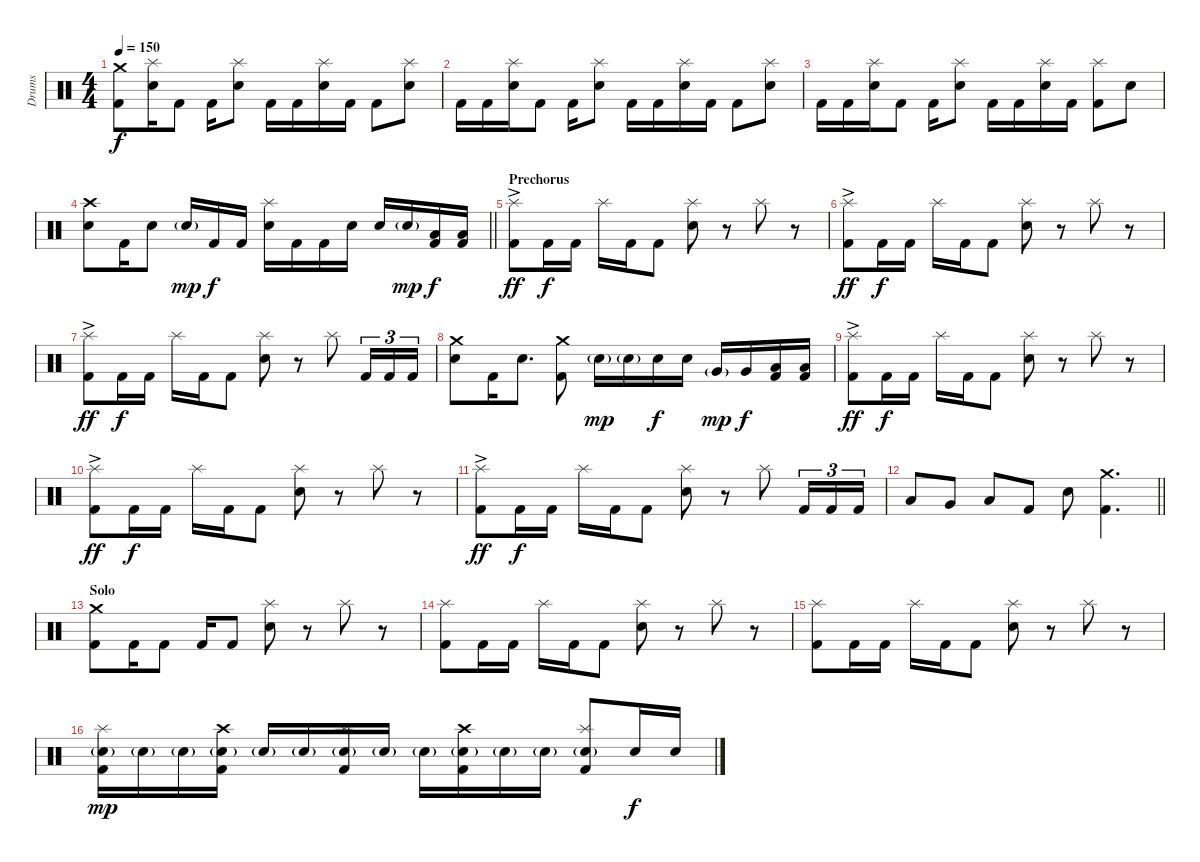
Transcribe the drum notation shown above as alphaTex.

\track ("Drums" "Drums") {instrument percussion}
\staff {score}
\articulation defaults
\ts (4 4)
\tempo 150
\clef neutral
\ks c
("Crash medium (hit)" "Kick (hit) 2").8{dy f} ("Splash (hit)" "Electric Snare (hit)").16 "Kick (hit) 2".8 "Kick (hit) 2".16 ("Splash (hit)" "Electric Snare (hit)").8 "Kick (hit) 2".16 "Kick (hit) 2".16 ("Splash (hit)" "Electric Snare (hit)").16 "Kick (hit) 2".16 "Kick (hit) 2".8 ("Splash (hit)" "Electric Snare (hit)").8 |
"Kick (hit) 2".16 "Kick (hit) 2".16 ("Splash (hit)" "Electric Snare (hit)").16 "Kick (hit) 2".8 "Kick (hit) 2".16 ("Splash (hit)" "Electric Snare (hit)").8 "Kick (hit) 2".16 "Kick (hit) 2".16 ("Splash (hit)" "Electric Snare (hit)").16 "Kick (hit) 2".16 "Kick (hit) 2".8 ("Splash (hit)" "Electric Snare (hit)").8 |
"Kick (hit) 2".16 "Kick (hit) 2".16 ("Splash (hit)" "Electric Snare (hit)").16 "Kick (hit) 2".8 "Kick (hit) 2".16 ("Splash (hit)" "Electric Snare (hit)").8 "Kick (hit) 2".16 "Kick (hit) 2".16 ("Splash (hit)" "Electric Snare (hit)").16 "Kick (hit) 2".16 ("Splash (hit)" "Kick (hit) 2").8 "Electric Snare (hit)".8 |
\barLineRight lightlight
("Crash high (hit)" "Electric Snare (hit)").8 "Kick (hit) 2".16 "Electric Snare (hit)".8 "Electric Snare (hit)"{g}.16{dy mp} "Kick (hit) 2".16{dy f} "Kick (hit) 2".16 ("Splash (hit)" "Electric Snare (hit)").16 "Kick (hit) 2".16 "Kick (hit) 2".16 "Electric Snare (hit)".16 "Electric Snare (hit)".16 "Electric Snare (hit)"{g}.16{dy mp} ("Low Floor Tom (hit)" "Kick (hit) 2").16{dy f} ("Low Floor Tom (hit)" "Kick (hit) 2").16 |
\section ("" "Prechorus")
("Splash (hit)"{ac} "Kick (hit) 2").8{dy ff} "Kick (hit) 2".16{dy f} "Kick (hit) 2".16 "Splash (hit)".16 "Kick (hit) 2".16 "Kick (hit) 2".8 ("Splash (hit)" "Electric Snare (hit)").8 r.8 "Splash (hit)".8 r.8 |
("Splash (hit)"{ac} "Kick (hit) 2").8{dy ff} "Kick (hit) 2".16{dy f} "Kick (hit) 2".16 "Splash (hit)".16 "Kick (hit) 2".16 "Kick (hit) 2".8 ("Splash (hit)" "Electric Snare (hit)").8 r.8 "Splash (hit)".8 r.8 |
("Splash (hit)"{ac} "Kick (hit) 2").8{dy ff} "Kick (hit) 2".16{dy f} "Kick (hit) 2".16 "Splash (hit)".16 "Kick (hit) 2".16 "Kick (hit) 2".8 ("Splash (hit)" "Electric Snare (hit)").8 r.8 "Splash (hit)".8 "Kick (hit) 2".16{tu (3 2)} "Kick (hit) 2".16{tu (3 2)} "Kick (hit) 2".16{tu (3 2)} |
("Crash medium (hit)" "Electric Snare (hit)").8 "Kick (hit) 2".16 "Electric Snare (hit)".8{d} ("Crash medium (hit)" "Kick (hit) 2").8 "Electric Snare (hit)"{g}.16{dy mp} "Electric Snare (hit)"{g}.16 "Electric Snare (hit)".16{dy f} "Electric Snare (hit)".16 "Very Low Tom (hit)"{g}.16{dy mp} "Very Low Tom (hit)".16{dy f} ("Low Floor Tom (hit)" "Kick (hit) 2").16 ("Low Floor Tom (hit)" "Kick (hit) 2").16 |
("Splash (hit)"{ac} "Kick (hit) 2").8{dy ff} "Kick (hit) 2".16{dy f} "Kick (hit) 2".16 "Splash (hit)".16 "Kick (hit) 2".16 "Kick (hit) 2".8 ("Splash (hit)" "Electric Snare (hit)").8 r.8 "Splash (hit)".8 r.8 |
("Splash (hit)"{ac} "Kick (hit) 2").8{dy ff} "Kick (hit) 2".16{dy f} "Kick (hit) 2".16 "Splash (hit)".16 "Kick (hit) 2".16 "Kick (hit) 2".8 ("Splash (hit)" "Electric Snare (hit)").8 r.8 "Splash (hit)".8 r.8 |
("Splash (hit)"{ac} "Kick (hit) 2").8{dy ff} "Kick (hit) 2".16{dy f} "Kick (hit) 2".16 "Splash (hit)".16 "Kick (hit) 2".16 "Kick (hit) 2".8 ("Splash (hit)" "Electric Snare (hit)").8 r.8 "Splash (hit)".8 "Kick (hit) 2".16{tu (3 2)} "Kick (hit) 2".16{tu (3 2)} "Kick (hit) 2".16{tu (3 2)} |
\barLineRight lightlight "Low Floor Tom (hit)".8 "Very Low Tom (hit)".8 "Low Tom (hit)".8 "Kick (hit) 2".8 "Electric Snare (hit)".8
("Crash medium (hit)" "Kick (hit) 2").4{d} |
\section ("" "Solo")
("Crash medium (hit)" "Kick (hit) 2").8 "Kick (hit) 2".16 "Kick (hit) 2".8 "Kick (hit) 2".16 "Kick (hit) 2".8 ("Splash (hit)" "Electric Snare (hit)").8 r.8 "Splash (hit)".8 r.8 |
("Splash (hit)" "Kick (hit) 2").8 "Kick (hit) 2".16 "Kick (hit) 2".16 "Splash (hit)".16 "Kick (hit) 2".16 "Kick (hit) 2".8 ("Splash (hit)" "Electric Snare (hit)").8 r.8 "Splash (hit)".8 r.8 |
("Splash (hit)" "Kick (hit) 2").8 "Kick (hit) 2".16 "Kick (hit) 2".16 "Splash (hit)".16 "Kick (hit) 2".16 "Kick (hit) 2".8 ("Splash (hit)" "Electric Snare (hit)").8 r.8 "Splash (hit)".8 r.8 |
("Splash (hit)" "Electric Snare (hit)"{g} "Kick (hit) 2").16{dy mp} "Electric Snare (hit)"{g}.16 "Electric Snare (hit)"{g}.16 ("Crash high (hit)" "Electric Snare (hit)"{g} "Kick (hit) 2").16 "Electric Snare (hit)"{g}.16 "Electric Snare (hit)"{g}.16 ("Splash (hit)" "Electric Snare (hit)"{g} "Kick (hit) 2").16 "Electric Snare (hit)"{g}.16 "Electric Snare (hit)"{g}.16 ("Crash high (hit)" "Electric Snare (hit)"{g} "Kick (hit) 2").16 "Electric Snare (hit)"{g}.16 "Electric Snare (hit)"{g}.16 ("Splash (hit)" "Electric Snare (hit)"{g} "Kick (hit) 2").8 "Electric Snare (hit)".16{dy f} "Electric Snare (hit)".16
